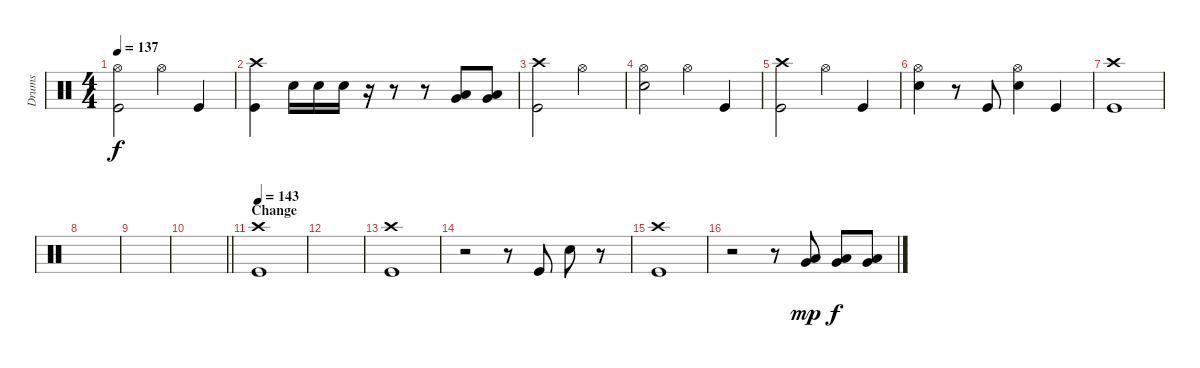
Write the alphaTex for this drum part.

\track ("Drums" "Drums") {instrument percussion}
\staff {score}
\articulation defaults
\ts (4 4)
\tempo 137
\clef neutral
\ks c
("Hi-Hat (open)" "Kick (hit)").2{dy f} "Hi-Hat (open)".4 "Kick (hit)".4 |
("Crash high (hit)" "Kick (hit)").4 "Snare (hit) 2".16 "Snare (hit) 2".16 "Snare (hit) 2".16 r.16 r.8 r.8 ("Low Tom (hit)" "Very Low Tom (hit)").8 ("Low Tom (hit)" "Very Low Tom (hit)").8 |
("Crash high (hit)" "Kick (hit)").2 "Hi-Hat (open)".2 |
("Hi-Hat (open)" "Snare (hit) 2").2 "Hi-Hat (open)".4 "Kick (hit)".4 |
("Crash high (hit)" "Kick (hit)").2 "Hi-Hat (open)".4 "Kick (hit)".4 |
("Hi-Hat (open)" "Snare (hit) 2").4 r.8 "Kick (hit)".8 ("Hi-Hat (open)" "Snare (hit) 2").4 "Kick (hit)".4 |
("Crash high (hit)" "Kick (hit)").1 |
|
|
\barLineRight lightlight
|
\section ("" "Change")
\tempo 143
("Crash high (hit)" "Kick (hit)").1 |
|
("Crash high (hit)" "Kick (hit)").1 |
r.2 r.8 "Kick (hit)".8 "Snare (hit) 2".8 r.8 |
("Crash high (hit)" "Kick (hit)").1 |
r.2 r.8 ("Low Floor Tom (hit)" "Very Low Tom (hit)").8{dy mp} ("Low Floor Tom (hit)" "Very Low Tom (hit)").8{dy f} ("Low Floor Tom (hit)" "Very Low Tom (hit)").8
